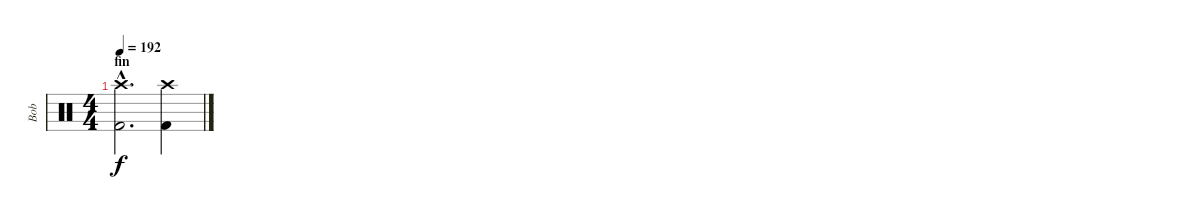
\track ("Bob" "Bob") {instrument percussion}
\staff {score}
\articulation defaults
\ts (4 4)
\section ("" "fin")
\tempo 192
\clef neutral
\ks c
("Crash high (hit)"{hac} "Kick (hit) 2"{hac}).2{d dy f} ("Crash high (hit)" "Kick (hit) 2").4
